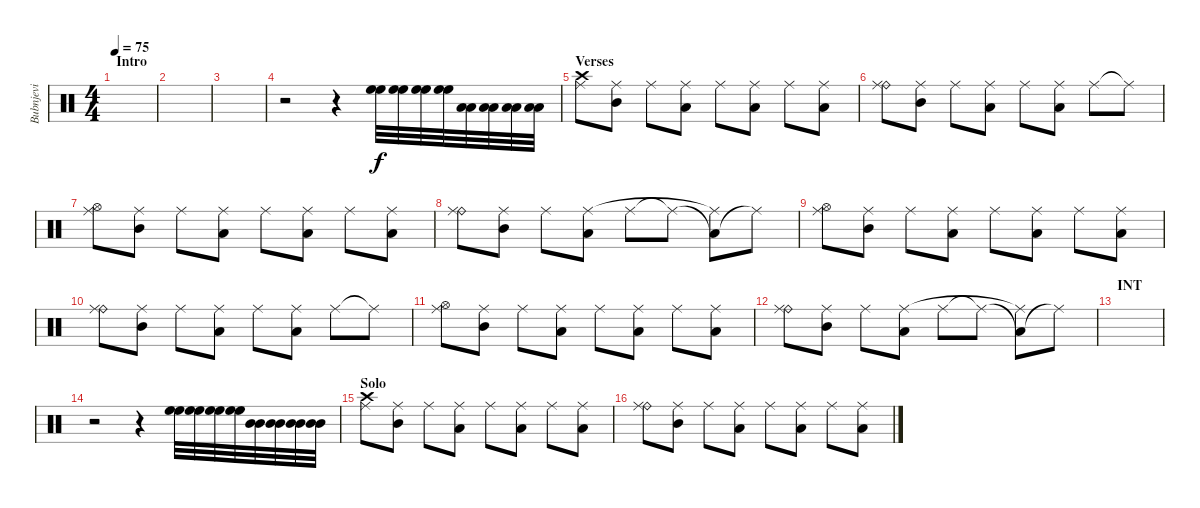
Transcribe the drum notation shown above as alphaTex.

\track ("Bubnjevi" "Bubnjevi") {instrument percussion}
\staff {score}
\articulation defaults
\ts (4 4)
\section ("" "Intro")
\tempo 75
\clef neutral
\ks c
|
|
|
r.2 r.4 ("High Floor Tom (hit)" "High Floor Tom (hit)").32 ("High Floor Tom (hit)" "High Floor Tom (hit)").32 ("High Floor Tom (hit)" "High Floor Tom (hit)").32 ("High Floor Tom (hit)" "High Floor Tom (hit)").32 ("Low Tom (hit)" "Low Tom (hit)").32 ("Low Tom (hit)" "Low Tom (hit)").32 ("Low Tom (hit)" "Low Tom (hit)").32 ("Low Tom (hit)" "Low Tom (hit)").32 |
\section ("" "Verses")
("Crash high (hit)" "Ride (middle)").8 ("Mid Tom (hit)" "Ride (middle)").8 "Ride (middle)".8 ("Low Tom (hit)" "Ride (middle)").8 "Ride (middle)".8 ("Low Tom (hit)" "Ride (middle)").8 "Ride (middle)".8 ("Low Tom (hit)" "Ride (middle)").8 |
("Ride (bell)" "Ride (middle)").8 ("Mid Tom (hit)" "Ride (middle)").8 "Ride (middle)".8 ("Low Tom (hit)" "Ride (middle)").8 "Ride (middle)".8 ("Low Tom (hit)" "Ride (middle)").8 "Ride (middle)".8 "Ride (middle)"{t}.8 |
("Hi-Hat (open)" "Ride (middle)").8 ("Mid Tom (hit)" "Ride (middle)").8 "Ride (middle)".8 ("Low Tom (hit)" "Ride (middle)").8 "Ride (middle)".8 ("Low Tom (hit)" "Ride (middle)").8 "Ride (middle)".8 ("Low Tom (hit)" "Ride (middle)").8 |
("Ride (bell)" "Ride (middle)").8 ("Mid Tom (hit)" "Ride (middle)").8 "Ride (middle)".8 ("Low Tom (hit)" "Ride (middle)").8 "Ride (middle)".8 "Ride (middle)"{t}.8 ("Low Floor Tom (hit)"{t} "Ride (middle)"{t}).8 "Ride (middle)"{t}.8 |
("Hi-Hat (open)" "Ride (middle)").8 ("Mid Tom (hit)" "Ride (middle)").8 "Ride (middle)".8 ("Low Tom (hit)" "Ride (middle)").8 "Ride (middle)".8 ("Low Tom (hit)" "Ride (middle)").8 "Ride (middle)".8 ("Low Tom (hit)" "Ride (middle)").8 |
("Ride (bell)" "Ride (middle)").8 ("Mid Tom (hit)" "Ride (middle)").8 "Ride (middle)".8 ("Low Tom (hit)" "Ride (middle)").8 "Ride (middle)".8 ("Low Tom (hit)" "Ride (middle)").8 "Ride (middle)".8 "Ride (middle)"{t}.8 |
("Hi-Hat (open)" "Ride (middle)").8 ("Mid Tom (hit)" "Ride (middle)").8 "Ride (middle)".8 ("Low Tom (hit)" "Ride (middle)").8 "Ride (middle)".8 ("Low Tom (hit)" "Ride (middle)").8 "Ride (middle)".8 ("Low Tom (hit)" "Ride (middle)").8 |
("Ride (bell)" "Ride (middle)").8 ("Mid Tom (hit)" "Ride (middle)").8 "Ride (middle)".8 ("Low Tom (hit)" "Ride (middle)").8 "Ride (middle)".8 "Ride (middle)"{t}.8 ("Low Floor Tom (hit)"{t} "Ride (middle)"{t}).8 "Ride (middle)"{t}.8 |
\section ("" "INT")
|
r.2 r.4 ("High Floor Tom (hit)" "High Floor Tom (hit)").32 ("High Floor Tom (hit)" "High Floor Tom (hit)").32 ("High Floor Tom (hit)" "High Floor Tom (hit)").32 ("High Floor Tom (hit)" "High Floor Tom (hit)").32 ("Mid Tom (hit)" "Mid Tom (hit)").32 ("Mid Tom (hit)" "Mid Tom (hit)").32 ("Mid Tom (hit)" "Mid Tom (hit)").32 ("Mid Tom (hit)" "Mid Tom (hit)").32 |
\section ("" "Solo")
("Crash high (hit)" "Ride (middle)").8 ("Mid Tom (hit)" "Ride (middle)").8 "Ride (middle)".8 ("Low Tom (hit)" "Ride (middle)").8 "Ride (middle)".8 ("Low Tom (hit)" "Ride (middle)").8 "Ride (middle)".8 ("Low Tom (hit)" "Ride (middle)").8 |
("Ride (bell)" "Ride (middle)").8 ("Mid Tom (hit)" "Ride (middle)").8 "Ride (middle)".8 ("Low Tom (hit)" "Ride (middle)").8 "Ride (middle)".8 ("Low Tom (hit)" "Ride (middle)").8 "Ride (middle)".8 ("Low Tom (hit)" "Ride (middle)").8
